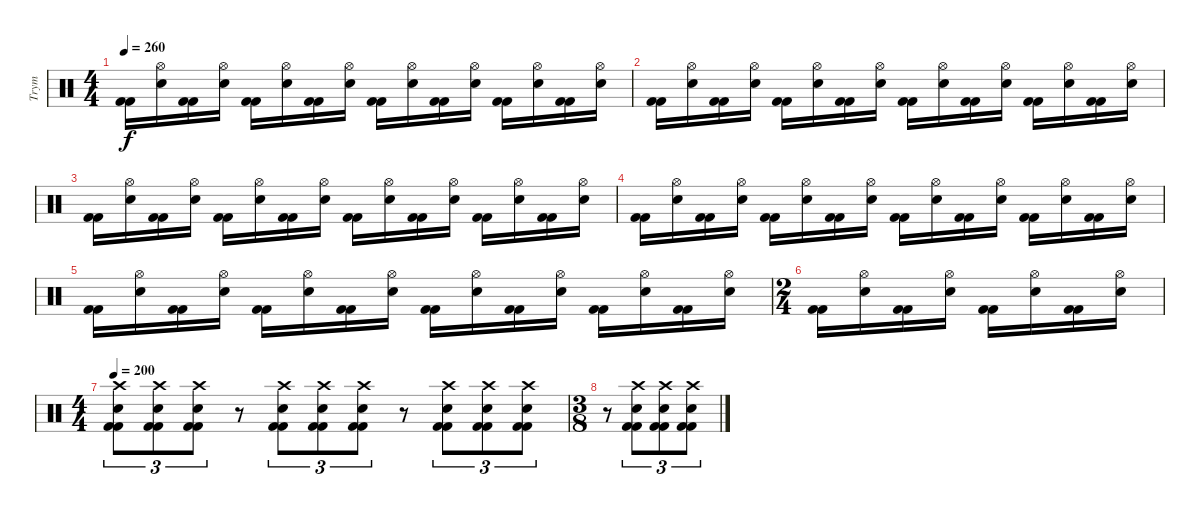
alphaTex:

\track ("Trym" "Trym") {instrument percussion}
\staff {score}
\articulation defaults
\ts (4 4)
\tempo 260
\clef neutral
\ks c
("Kick (hit) 2" "Kick (hit) 2").16{dy f} ("Hi-Hat (open)" "Snare (hit) 2").16 ("Kick (hit) 2" "Kick (hit) 2").16 ("Hi-Hat (open)" "Snare (hit) 2").16 ("Kick (hit) 2" "Kick (hit) 2").16 ("Hi-Hat (open)" "Snare (hit) 2").16 ("Kick (hit) 2" "Kick (hit) 2").16 ("Hi-Hat (open)" "Snare (hit) 2").16 ("Kick (hit) 2" "Kick (hit) 2").16 ("Hi-Hat (open)" "Snare (hit) 2").16 ("Kick (hit) 2" "Kick (hit) 2").16 ("Hi-Hat (open)" "Snare (hit) 2").16 ("Kick (hit) 2" "Kick (hit) 2").16 ("Hi-Hat (open)" "Snare (hit) 2").16 ("Kick (hit) 2" "Kick (hit) 2").16 ("Hi-Hat (open)" "Snare (hit) 2").16 |
("Kick (hit) 2" "Kick (hit) 2").16 ("Hi-Hat (open)" "Snare (hit) 2").16 ("Kick (hit) 2" "Kick (hit) 2").16 ("Hi-Hat (open)" "Snare (hit) 2").16 ("Kick (hit) 2" "Kick (hit) 2").16 ("Hi-Hat (open)" "Snare (hit) 2").16 ("Kick (hit) 2" "Kick (hit) 2").16 ("Hi-Hat (open)" "Snare (hit) 2").16 ("Kick (hit) 2" "Kick (hit) 2").16 ("Hi-Hat (open)" "Snare (hit) 2").16 ("Kick (hit) 2" "Kick (hit) 2").16 ("Hi-Hat (open)" "Snare (hit) 2").16 ("Kick (hit) 2" "Kick (hit) 2").16 ("Hi-Hat (open)" "Snare (hit) 2").16 ("Kick (hit) 2" "Kick (hit) 2").16 ("Hi-Hat (open)" "Snare (hit) 2").16 |
("Kick (hit) 2" "Kick (hit) 2").16 ("Hi-Hat (open)" "Snare (hit) 2").16 ("Kick (hit) 2" "Kick (hit) 2").16 ("Hi-Hat (open)" "Snare (hit) 2").16 ("Kick (hit) 2" "Kick (hit) 2").16 ("Hi-Hat (open)" "Snare (hit) 2").16 ("Kick (hit) 2" "Kick (hit) 2").16 ("Hi-Hat (open)" "Snare (hit) 2").16 ("Kick (hit) 2" "Kick (hit) 2").16 ("Hi-Hat (open)" "Snare (hit) 2").16 ("Kick (hit) 2" "Kick (hit) 2").16 ("Hi-Hat (open)" "Snare (hit) 2").16 ("Kick (hit) 2" "Kick (hit) 2").16 ("Hi-Hat (open)" "Snare (hit) 2").16 ("Kick (hit) 2" "Kick (hit) 2").16 ("Hi-Hat (open)" "Snare (hit) 2").16 |
("Kick (hit) 2" "Kick (hit) 2").16 ("Hi-Hat (open)" "Snare (hit) 2").16 ("Kick (hit) 2" "Kick (hit) 2").16 ("Hi-Hat (open)" "Snare (hit) 2").16 ("Kick (hit) 2" "Kick (hit) 2").16 ("Hi-Hat (open)" "Snare (hit) 2").16 ("Kick (hit) 2" "Kick (hit) 2").16 ("Hi-Hat (open)" "Snare (hit) 2").16 ("Kick (hit) 2" "Kick (hit) 2").16 ("Hi-Hat (open)" "Snare (hit) 2").16 ("Kick (hit) 2" "Kick (hit) 2").16 ("Hi-Hat (open)" "Snare (hit) 2").16 ("Kick (hit) 2" "Kick (hit) 2").16 ("Hi-Hat (open)" "Snare (hit) 2").16 ("Kick (hit) 2" "Kick (hit) 2").16 ("Hi-Hat (open)" "Snare (hit) 2").16 |
("Kick (hit) 2" "Kick (hit) 2").16 ("Hi-Hat (open)" "Snare (hit) 2").16 ("Kick (hit) 2" "Kick (hit) 2").16 ("Hi-Hat (open)" "Snare (hit) 2").16 ("Kick (hit) 2" "Kick (hit) 2").16 ("Hi-Hat (open)" "Snare (hit) 2").16 ("Kick (hit) 2" "Kick (hit) 2").16 ("Hi-Hat (open)" "Snare (hit) 2").16 ("Kick (hit) 2" "Kick (hit) 2").16 ("Hi-Hat (open)" "Snare (hit) 2").16 ("Kick (hit) 2" "Kick (hit) 2").16 ("Hi-Hat (open)" "Snare (hit) 2").16 ("Kick (hit) 2" "Kick (hit) 2").16 ("Hi-Hat (open)" "Snare (hit) 2").16 ("Kick (hit) 2" "Kick (hit) 2").16 ("Hi-Hat (open)" "Snare (hit) 2").16 |
\ts (2 4)
("Kick (hit) 2" "Kick (hit) 2").16 ("Hi-Hat (open)" "Snare (hit) 2").16 ("Kick (hit) 2" "Kick (hit) 2").16 ("Hi-Hat (open)" "Snare (hit) 2").16 ("Kick (hit) 2" "Kick (hit) 2").16 ("Hi-Hat (open)" "Snare (hit) 2").16 ("Kick (hit) 2" "Kick (hit) 2").16 ("Hi-Hat (open)" "Snare (hit) 2").16 |
\ts (4 4)
\tempo 200
("Kick (hit) 2" "Crash high (hit)" "Snare (hit) 2" "Kick (hit) 2").8{tu (3 2)} ("Kick (hit) 2" "Crash high (hit)" "Snare (hit) 2" "Kick (hit) 2").8{tu (3 2)} ("Kick (hit) 2" "Crash high (hit)" "Snare (hit) 2" "Kick (hit) 2").8{tu (3 2)} r.8 ("Kick (hit) 2" "Crash high (hit)" "Snare (hit) 2" "Kick (hit) 2").8{tu (3 2)} ("Kick (hit) 2" "Crash high (hit)" "Snare (hit) 2" "Kick (hit) 2").8{tu (3 2)} ("Kick (hit) 2" "Crash high (hit)" "Snare (hit) 2" "Kick (hit) 2").8{tu (3 2)} r.8 ("Kick (hit) 2" "Crash high (hit)" "Snare (hit) 2" "Kick (hit) 2").8{tu (3 2)} ("Kick (hit) 2" "Crash high (hit)" "Snare (hit) 2" "Kick (hit) 2").8{tu (3 2)} ("Kick (hit) 2" "Crash high (hit)" "Snare (hit) 2" "Kick (hit) 2").8{tu (3 2)} |
\ts (3 8)
r.8 ("Kick (hit) 2" "Crash high (hit)" "Snare (hit) 2" "Kick (hit) 2").8{tu (3 2)} ("Kick (hit) 2" "Crash high (hit)" "Snare (hit) 2" "Kick (hit) 2").8{tu (3 2)} ("Kick (hit) 2" "Crash high (hit)" "Snare (hit) 2" "Kick (hit) 2").8{tu (3 2)}
